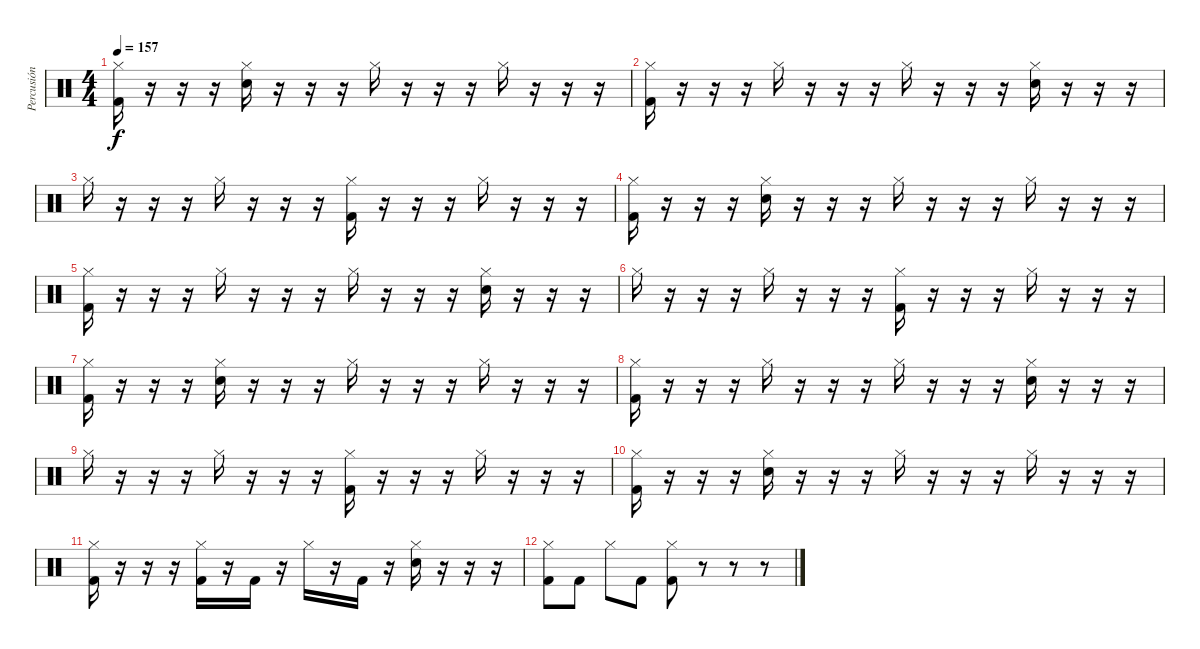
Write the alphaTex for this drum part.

\track ("Percusión" "Percusión") {instrument percussion}
\staff {score}
\articulation defaults
\ts (4 4)
\tempo 157
\clef neutral
\ks c
("Hi-Hat (closed)" "Kick (hit) 2").16{dy f} r.16 r.16 r.16 ("Hi-Hat (closed)" "Electric Snare (hit)").16 r.16 r.16 r.16 "Hi-Hat (closed)".16 r.16 r.16 r.16 "Hi-Hat (closed)".16 r.16 r.16 r.16 |
("Hi-Hat (closed)" "Kick (hit) 2").16 r.16 r.16 r.16 "Hi-Hat (closed)".16 r.16 r.16 r.16 "Hi-Hat (closed)".16 r.16 r.16 r.16 ("Hi-Hat (closed)" "Electric Snare (hit)").16 r.16 r.16 r.16 |
"Hi-Hat (closed)".16 r.16 r.16 r.16 "Hi-Hat (closed)".16 r.16 r.16 r.16 ("Hi-Hat (closed)" "Kick (hit) 2").16 r.16 r.16 r.16 "Hi-Hat (closed)".16 r.16 r.16 r.16 |
("Hi-Hat (closed)" "Kick (hit) 2").16 r.16 r.16 r.16 ("Hi-Hat (closed)" "Electric Snare (hit)").16 r.16 r.16 r.16 "Hi-Hat (closed)".16 r.16 r.16 r.16 "Hi-Hat (closed)".16 r.16 r.16 r.16 |
("Hi-Hat (closed)" "Kick (hit) 2").16 r.16 r.16 r.16 "Hi-Hat (closed)".16 r.16 r.16 r.16 "Hi-Hat (closed)".16 r.16 r.16 r.16 ("Hi-Hat (closed)" "Electric Snare (hit)").16 r.16 r.16 r.16 |
"Hi-Hat (closed)".16 r.16 r.16 r.16 "Hi-Hat (closed)".16 r.16 r.16 r.16 ("Hi-Hat (closed)" "Kick (hit) 2").16 r.16 r.16 r.16 "Hi-Hat (closed)".16 r.16 r.16 r.16 |
("Hi-Hat (closed)" "Kick (hit) 2").16 r.16 r.16 r.16 ("Hi-Hat (closed)" "Electric Snare (hit)").16 r.16 r.16 r.16 "Hi-Hat (closed)".16 r.16 r.16 r.16 "Hi-Hat (closed)".16 r.16 r.16 r.16 |
("Hi-Hat (closed)" "Kick (hit) 2").16 r.16 r.16 r.16 "Hi-Hat (closed)".16 r.16 r.16 r.16 "Hi-Hat (closed)".16 r.16 r.16 r.16 ("Hi-Hat (closed)" "Electric Snare (hit)").16 r.16 r.16 r.16 |
"Hi-Hat (closed)".16 r.16 r.16 r.16 "Hi-Hat (closed)".16 r.16 r.16 r.16 ("Hi-Hat (closed)" "Kick (hit) 2").16 r.16 r.16 r.16 "Hi-Hat (closed)".16 r.16 r.16 r.16 |
("Hi-Hat (closed)" "Kick (hit) 2").16 r.16 r.16 r.16 ("Hi-Hat (closed)" "Electric Snare (hit)").16 r.16 r.16 r.16 "Hi-Hat (closed)".16 r.16 r.16 r.16 "Hi-Hat (closed)".16 r.16 r.16 r.16 |
("Hi-Hat (closed)" "Kick (hit) 2").16 r.16 r.16 r.16 ("Hi-Hat (closed)" "Kick (hit) 2").16 r.16 "Kick (hit) 2".16 r.16 "Hi-Hat (closed)".16 r.16 "Kick (hit) 2".16 r.16 ("Hi-Hat (closed)" "Electric Snare (hit)").16 r.16 r.16 r.16 |
("Hi-Hat (closed)" "Kick (hit) 2").8 "Kick (hit) 2".8 "Hi-Hat (closed)".8 "Kick (hit) 2".8 ("Hi-Hat (closed)" "Kick (hit) 2").8 r.8 r.8 r.8
